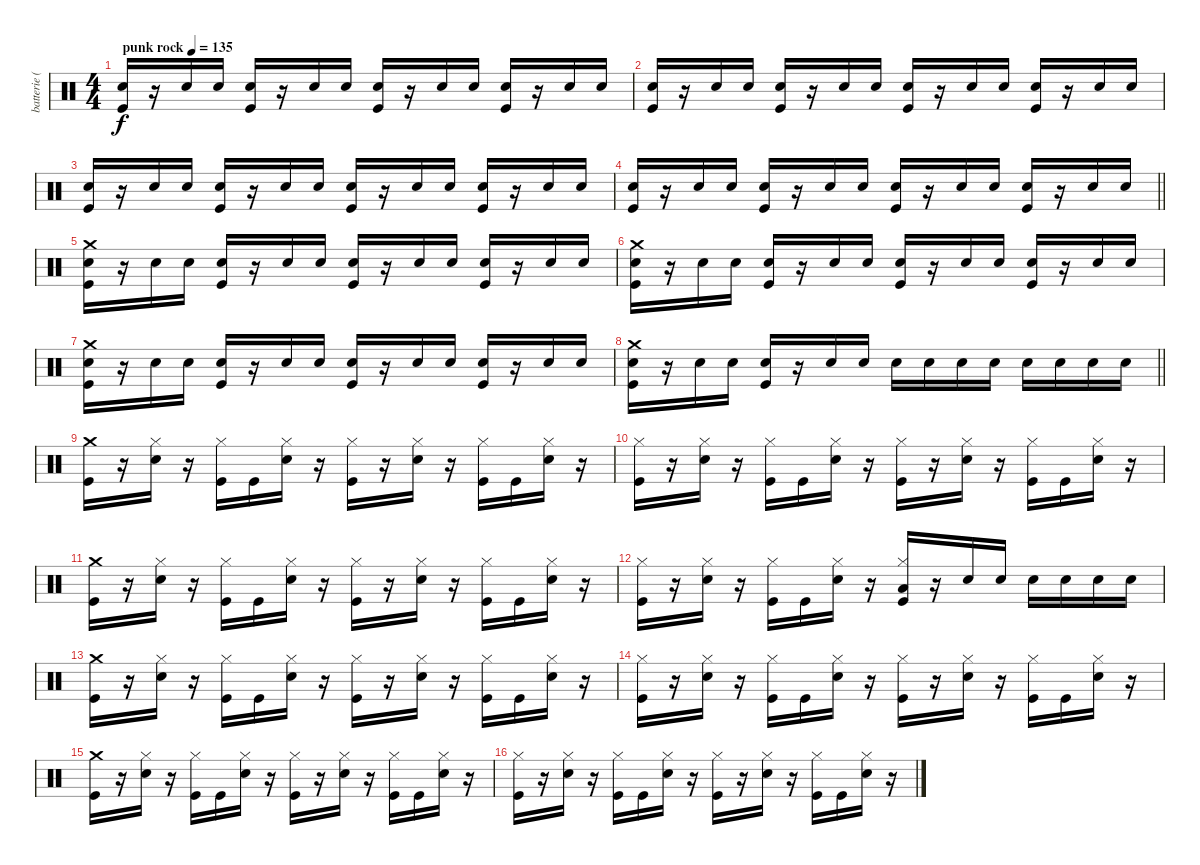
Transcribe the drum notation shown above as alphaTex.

\track ("batterie ( Mathieu )" "batterie (") {instrument percussion}
\staff {score}
\articulation defaults
\ts (4 4)
\tempo (135 "punk rock")
\clef neutral
\ks c
("Snare (hit) 2" "Kick (hit)").16{dy f} r.16 "Snare (hit) 2".16 "Snare (hit) 2".16 ("Snare (hit) 2" "Kick (hit)").16 r.16 "Snare (hit) 2".16 "Snare (hit) 2".16 ("Snare (hit) 2" "Kick (hit)").16 r.16 "Snare (hit) 2".16 "Snare (hit) 2".16 ("Snare (hit) 2" "Kick (hit)").16 r.16 "Snare (hit) 2".16 "Snare (hit) 2".16 |
("Snare (hit) 2" "Kick (hit)").16 r.16 "Snare (hit) 2".16 "Snare (hit) 2".16 ("Snare (hit) 2" "Kick (hit)").16 r.16 "Snare (hit) 2".16 "Snare (hit) 2".16 ("Snare (hit) 2" "Kick (hit)").16 r.16 "Snare (hit) 2".16 "Snare (hit) 2".16 ("Snare (hit) 2" "Kick (hit)").16 r.16 "Snare (hit) 2".16 "Snare (hit) 2".16 |
("Snare (hit) 2" "Kick (hit)").16 r.16 "Snare (hit) 2".16 "Snare (hit) 2".16 ("Snare (hit) 2" "Kick (hit)").16 r.16 "Snare (hit) 2".16 "Snare (hit) 2".16 ("Snare (hit) 2" "Kick (hit)").16 r.16 "Snare (hit) 2".16 "Snare (hit) 2".16 ("Snare (hit) 2" "Kick (hit)").16 r.16 "Snare (hit) 2".16 "Snare (hit) 2".16 |
\barLineRight lightlight
("Snare (hit) 2" "Kick (hit)").16 r.16 "Snare (hit) 2".16 "Snare (hit) 2".16 ("Snare (hit) 2" "Kick (hit)").16 r.16 "Snare (hit) 2".16 "Snare (hit) 2".16 ("Snare (hit) 2" "Kick (hit)").16 r.16 "Snare (hit) 2".16 "Snare (hit) 2".16 ("Snare (hit) 2" "Kick (hit)").16 r.16 "Snare (hit) 2".16 "Snare (hit) 2".16 |
("Crash medium (hit)" "Snare (hit) 2" "Kick (hit)").16 r.16 "Snare (hit) 2".16 "Snare (hit) 2".16 ("Snare (hit) 2" "Kick (hit)").16 r.16 "Snare (hit) 2".16 "Snare (hit) 2".16 ("Snare (hit) 2" "Kick (hit)").16 r.16 "Snare (hit) 2".16 "Snare (hit) 2".16 ("Snare (hit) 2" "Kick (hit)").16 r.16 "Snare (hit) 2".16 "Snare (hit) 2".16 |
("Crash medium (hit)" "Snare (hit) 2" "Kick (hit)").16 r.16 "Snare (hit) 2".16 "Snare (hit) 2".16 ("Snare (hit) 2" "Kick (hit)").16 r.16 "Snare (hit) 2".16 "Snare (hit) 2".16 ("Snare (hit) 2" "Kick (hit)").16 r.16 "Snare (hit) 2".16 "Snare (hit) 2".16 ("Snare (hit) 2" "Kick (hit)").16 r.16 "Snare (hit) 2".16 "Snare (hit) 2".16 |
("Crash medium (hit)" "Snare (hit) 2" "Kick (hit)").16 r.16 "Snare (hit) 2".16 "Snare (hit) 2".16 ("Snare (hit) 2" "Kick (hit)").16 r.16 "Snare (hit) 2".16 "Snare (hit) 2".16 ("Snare (hit) 2" "Kick (hit)").16 r.16 "Snare (hit) 2".16 "Snare (hit) 2".16 ("Snare (hit) 2" "Kick (hit)").16 r.16 "Snare (hit) 2".16 "Snare (hit) 2".16 |
\barLineRight lightlight
("Crash medium (hit)" "Snare (hit) 2" "Kick (hit)").16 r.16 "Snare (hit) 2".16 "Snare (hit) 2".16 ("Snare (hit) 2" "Kick (hit)").16 r.16 "Snare (hit) 2".16 "Snare (hit) 2".16 "Snare (hit) 2".16 "Snare (hit) 2".16 "Snare (hit) 2".16 "Snare (hit) 2".16 "Snare (hit) 2".16 "Snare (hit) 2".16 "Snare (hit) 2".16 "Snare (hit) 2".16 |
("Crash medium (hit)" "Kick (hit)").16 r.16 ("Hi-Hat (closed)" "Snare (hit) 2").16 r.16 ("Hi-Hat (closed)" "Kick (hit)").16 "Kick (hit)".16 ("Hi-Hat (closed)" "Snare (hit) 2").16 r.16 ("Hi-Hat (closed)" "Kick (hit)").16 r.16 ("Hi-Hat (closed)" "Snare (hit) 2").16 r.16 ("Hi-Hat (closed)" "Kick (hit)").16 "Kick (hit)".16 ("Hi-Hat (closed)" "Snare (hit) 2").16 r.16 |
("Hi-Hat (closed)" "Kick (hit)").16 r.16 ("Hi-Hat (closed)" "Snare (hit) 2").16 r.16 ("Hi-Hat (closed)" "Kick (hit)").16 "Kick (hit)".16 ("Hi-Hat (closed)" "Snare (hit) 2").16 r.16 ("Hi-Hat (closed)" "Kick (hit)").16 r.16 ("Hi-Hat (closed)" "Snare (hit) 2").16 r.16 ("Hi-Hat (closed)" "Kick (hit)").16 "Kick (hit)".16 ("Hi-Hat (closed)" "Snare (hit) 2").16 r.16 |
("Crash medium (hit)" "Kick (hit)").16 r.16 ("Hi-Hat (closed)" "Snare (hit) 2").16 r.16 ("Hi-Hat (closed)" "Kick (hit)").16 "Kick (hit)".16 ("Hi-Hat (closed)" "Snare (hit) 2").16 r.16 ("Hi-Hat (closed)" "Kick (hit)").16 r.16 ("Hi-Hat (closed)" "Snare (hit) 2").16 r.16 ("Hi-Hat (closed)" "Kick (hit)").16 "Kick (hit)".16 ("Hi-Hat (closed)" "Snare (hit) 2").16 r.16 |
("Hi-Hat (closed)" "Kick (hit)").16 r.16 ("Hi-Hat (closed)" "Snare (hit) 2").16 r.16 ("Hi-Hat (closed)" "Kick (hit)").16 "Kick (hit)".16 ("Hi-Hat (closed)" "Snare (hit) 2").16 r.16 ("Hi-Hat (closed)" "Low Floor Tom (hit)" "Kick (hit)").16 r.16 "Snare (hit) 2".16 "Snare (hit) 2".16 "Snare (hit) 2".16 "Snare (hit) 2".16 "Snare (hit) 2".16 "Snare (hit) 2".16 |
("Crash medium (hit)" "Kick (hit)").16 r.16 ("Hi-Hat (closed)" "Snare (hit) 2").16 r.16 ("Hi-Hat (closed)" "Kick (hit)").16 "Kick (hit)".16 ("Hi-Hat (closed)" "Snare (hit) 2").16 r.16 ("Hi-Hat (closed)" "Kick (hit)").16 r.16 ("Hi-Hat (closed)" "Snare (hit) 2").16 r.16 ("Hi-Hat (closed)" "Kick (hit)").16 "Kick (hit)".16 ("Hi-Hat (closed)" "Snare (hit) 2").16 r.16 |
("Hi-Hat (closed)" "Kick (hit)").16 r.16 ("Hi-Hat (closed)" "Snare (hit) 2").16 r.16 ("Hi-Hat (closed)" "Kick (hit)").16 "Kick (hit)".16 ("Hi-Hat (closed)" "Snare (hit) 2").16 r.16 ("Hi-Hat (closed)" "Kick (hit)").16 r.16 ("Hi-Hat (closed)" "Snare (hit) 2").16 r.16 ("Hi-Hat (closed)" "Kick (hit)").16 "Kick (hit)".16 ("Hi-Hat (closed)" "Snare (hit) 2").16 r.16 |
("Crash medium (hit)" "Kick (hit)").16 r.16 ("Hi-Hat (closed)" "Snare (hit) 2").16 r.16 ("Hi-Hat (closed)" "Kick (hit)").16 "Kick (hit)".16 ("Hi-Hat (closed)" "Snare (hit) 2").16 r.16 ("Hi-Hat (closed)" "Kick (hit)").16 r.16 ("Hi-Hat (closed)" "Snare (hit) 2").16 r.16 ("Hi-Hat (closed)" "Kick (hit)").16 "Kick (hit)".16 ("Hi-Hat (closed)" "Snare (hit) 2").16 r.16 |
("Hi-Hat (closed)" "Kick (hit)").16 r.16 ("Hi-Hat (closed)" "Snare (hit) 2").16 r.16 ("Hi-Hat (closed)" "Kick (hit)").16 "Kick (hit)".16 ("Hi-Hat (closed)" "Snare (hit) 2").16 r.16 ("Hi-Hat (closed)" "Kick (hit)").16 r.16 ("Hi-Hat (closed)" "Snare (hit) 2").16 r.16 ("Hi-Hat (closed)" "Kick (hit)").16 "Kick (hit)".16 ("Hi-Hat (closed)" "Snare (hit) 2").16 r.16
